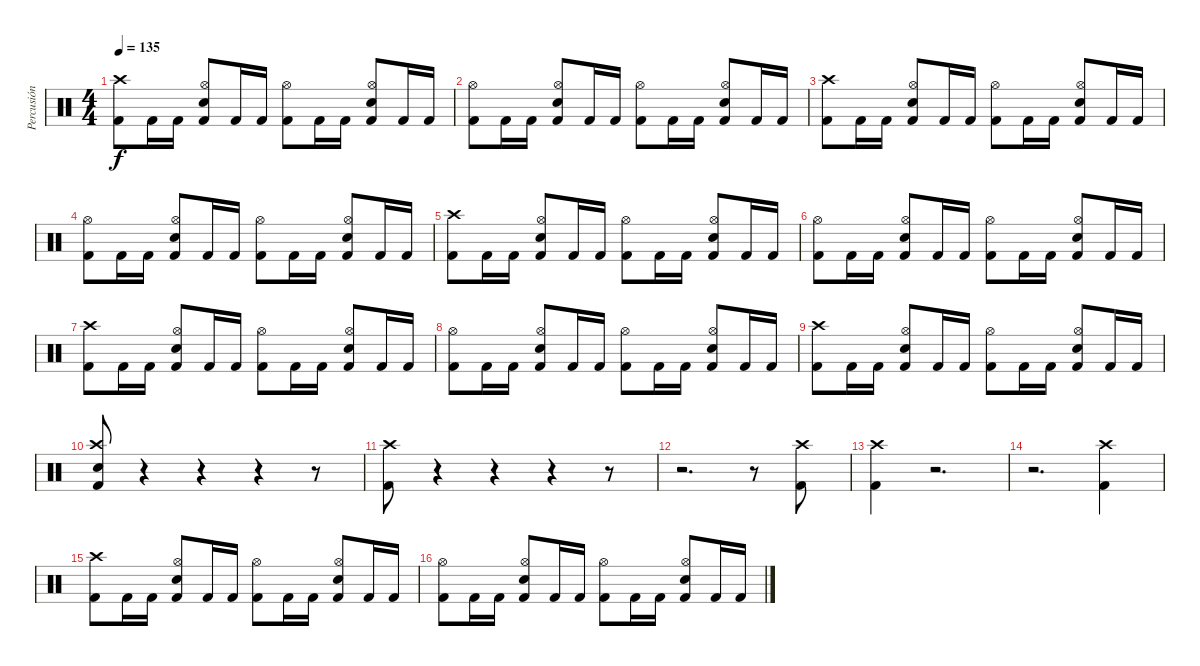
\track ("Percusión" "Percusión") {instrument percussion}
\staff {score}
\articulation defaults
\ts (4 4)
\tempo 135
\clef neutral
\ks c
("Kick (hit) 2" "Crash high (hit)").8{dy f} "Kick (hit) 2".16 "Kick (hit) 2".16 ("Kick (hit) 2" "Hi-Hat (open)" "Snare (hit) 2").8 "Kick (hit) 2".16 "Kick (hit) 2".16 ("Kick (hit) 2" "Hi-Hat (open)").8 "Kick (hit) 2".16 "Kick (hit) 2".16 ("Kick (hit) 2" "Hi-Hat (open)" "Snare (hit) 2").8 "Kick (hit) 2".16 "Kick (hit) 2".16 |
("Kick (hit) 2" "Hi-Hat (open)").8 "Kick (hit) 2".16 "Kick (hit) 2".16 ("Kick (hit) 2" "Hi-Hat (open)" "Snare (hit) 2").8 "Kick (hit) 2".16 "Kick (hit) 2".16 ("Kick (hit) 2" "Hi-Hat (open)").8 "Kick (hit) 2".16 "Kick (hit) 2".16 ("Kick (hit) 2" "Hi-Hat (open)" "Snare (hit) 2").8 "Kick (hit) 2".16 "Kick (hit) 2".16 |
("Kick (hit) 2" "Crash high (hit)").8 "Kick (hit) 2".16 "Kick (hit) 2".16 ("Kick (hit) 2" "Hi-Hat (open)" "Snare (hit) 2").8 "Kick (hit) 2".16 "Kick (hit) 2".16 ("Kick (hit) 2" "Hi-Hat (open)").8 "Kick (hit) 2".16 "Kick (hit) 2".16 ("Kick (hit) 2" "Hi-Hat (open)" "Snare (hit) 2").8 "Kick (hit) 2".16 "Kick (hit) 2".16 |
("Kick (hit) 2" "Hi-Hat (open)").8 "Kick (hit) 2".16 "Kick (hit) 2".16 ("Kick (hit) 2" "Hi-Hat (open)" "Snare (hit) 2").8 "Kick (hit) 2".16 "Kick (hit) 2".16 ("Kick (hit) 2" "Hi-Hat (open)").8 "Kick (hit) 2".16 "Kick (hit) 2".16 ("Kick (hit) 2" "Hi-Hat (open)" "Snare (hit) 2").8 "Kick (hit) 2".16 "Kick (hit) 2".16 |
("Kick (hit) 2" "Crash high (hit)").8 "Kick (hit) 2".16 "Kick (hit) 2".16 ("Kick (hit) 2" "Hi-Hat (open)" "Snare (hit) 2").8 "Kick (hit) 2".16 "Kick (hit) 2".16 ("Kick (hit) 2" "Hi-Hat (open)").8 "Kick (hit) 2".16 "Kick (hit) 2".16 ("Kick (hit) 2" "Hi-Hat (open)" "Snare (hit) 2").8 "Kick (hit) 2".16 "Kick (hit) 2".16 |
("Kick (hit) 2" "Hi-Hat (open)").8 "Kick (hit) 2".16 "Kick (hit) 2".16 ("Kick (hit) 2" "Hi-Hat (open)" "Snare (hit) 2").8 "Kick (hit) 2".16 "Kick (hit) 2".16 ("Kick (hit) 2" "Hi-Hat (open)").8 "Kick (hit) 2".16 "Kick (hit) 2".16 ("Kick (hit) 2" "Hi-Hat (open)" "Snare (hit) 2").8 "Kick (hit) 2".16 "Kick (hit) 2".16 |
("Kick (hit) 2" "Crash high (hit)").8 "Kick (hit) 2".16 "Kick (hit) 2".16 ("Kick (hit) 2" "Hi-Hat (open)" "Snare (hit) 2").8 "Kick (hit) 2".16 "Kick (hit) 2".16 ("Kick (hit) 2" "Hi-Hat (open)").8 "Kick (hit) 2".16 "Kick (hit) 2".16 ("Kick (hit) 2" "Hi-Hat (open)" "Snare (hit) 2").8 "Kick (hit) 2".16 "Kick (hit) 2".16 |
("Kick (hit) 2" "Hi-Hat (open)").8 "Kick (hit) 2".16 "Kick (hit) 2".16 ("Kick (hit) 2" "Hi-Hat (open)" "Snare (hit) 2").8 "Kick (hit) 2".16 "Kick (hit) 2".16 ("Kick (hit) 2" "Hi-Hat (open)").8 "Kick (hit) 2".16 "Kick (hit) 2".16 ("Kick (hit) 2" "Hi-Hat (open)" "Snare (hit) 2").8 "Kick (hit) 2".16 "Kick (hit) 2".16 |
("Kick (hit) 2" "Crash high (hit)").8 "Kick (hit) 2".16 "Kick (hit) 2".16 ("Kick (hit) 2" "Hi-Hat (open)" "Snare (hit) 2").8 "Kick (hit) 2".16 "Kick (hit) 2".16 ("Kick (hit) 2" "Hi-Hat (open)").8 "Kick (hit) 2".16 "Kick (hit) 2".16 ("Kick (hit) 2" "Hi-Hat (open)" "Snare (hit) 2").8 "Kick (hit) 2".16 "Kick (hit) 2".16 |
("Kick (hit) 2" "Snare (hit) 2" "Crash high (hit)").8 r.4 r.4 r.4 r.8 |
("Kick (hit) 2" "Crash high (hit)").8 r.4 r.4 r.4 r.8 |
r.2{d} r.8 ("Crash high (hit)" "Kick (hit) 2").8 |
("Crash high (hit)" "Kick (hit) 2").4 r.2{d} |
r.2{d} ("Crash high (hit)" "Kick (hit) 2").4 |
("Kick (hit) 2" "Crash high (hit)").8 "Kick (hit) 2".16 "Kick (hit) 2".16 ("Kick (hit) 2" "Hi-Hat (open)" "Snare (hit) 2").8 "Kick (hit) 2".16 "Kick (hit) 2".16 ("Kick (hit) 2" "Hi-Hat (open)").8 "Kick (hit) 2".16 "Kick (hit) 2".16 ("Kick (hit) 2" "Hi-Hat (open)" "Snare (hit) 2").8 "Kick (hit) 2".16 "Kick (hit) 2".16 |
("Kick (hit) 2" "Hi-Hat (open)").8 "Kick (hit) 2".16 "Kick (hit) 2".16 ("Kick (hit) 2" "Hi-Hat (open)" "Snare (hit) 2").8 "Kick (hit) 2".16 "Kick (hit) 2".16 ("Kick (hit) 2" "Hi-Hat (open)").8 "Kick (hit) 2".16 "Kick (hit) 2".16 ("Kick (hit) 2" "Hi-Hat (open)" "Snare (hit) 2").8 "Kick (hit) 2".16 "Kick (hit) 2".16
